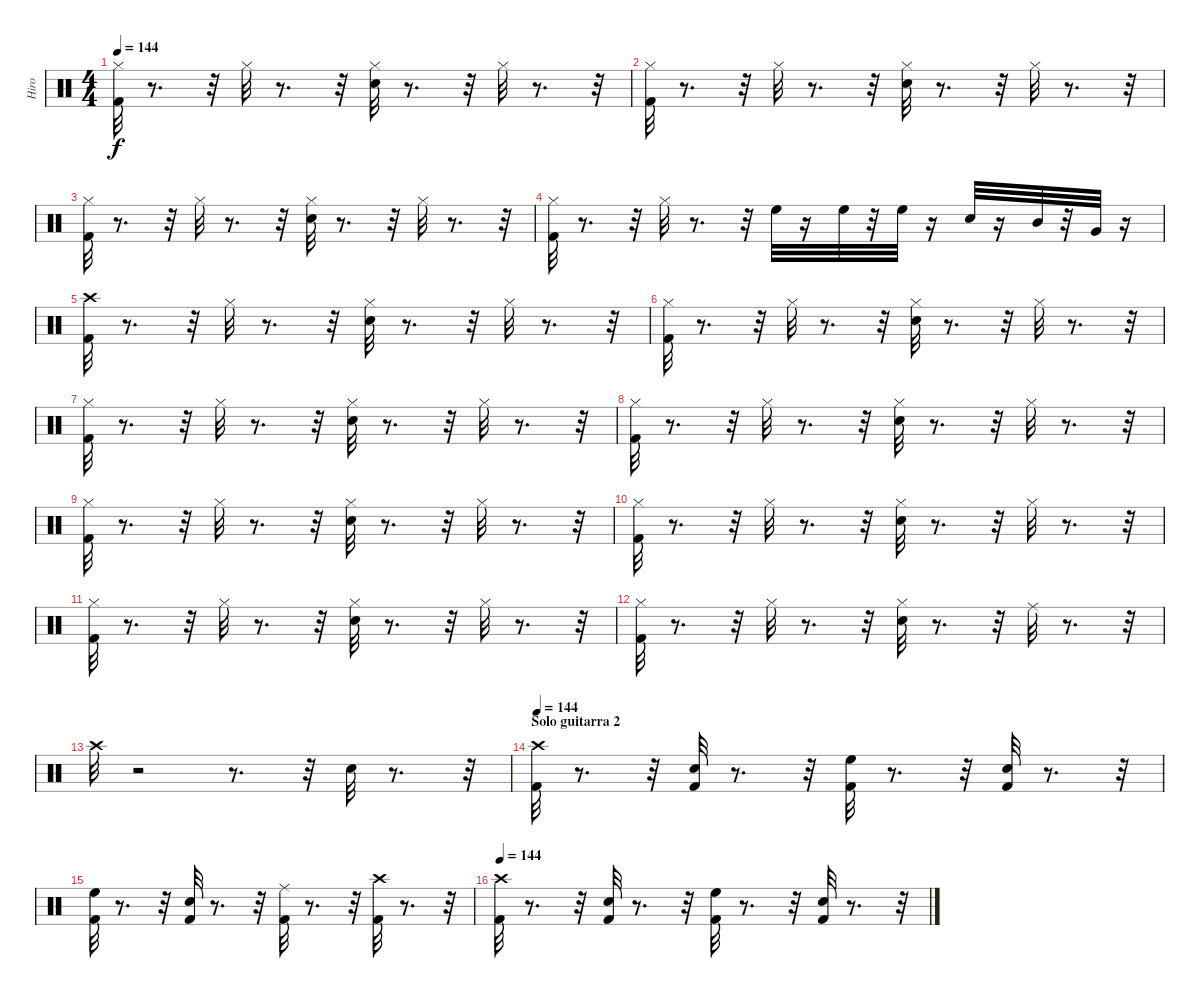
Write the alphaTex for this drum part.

\track ("Hiro" "Hiro") {instrument percussion}
\staff {score}
\articulation defaults
\ts (4 4)
\tempo 144
\clef neutral
\ks c
("Hi-Hat (closed)" "Kick (hit) 2").32{dy f} r.8{d} r.32 "Hi-Hat (closed)".32 r.8{d} r.32 ("Hi-Hat (closed)" "Snare (hit) 2").32 r.8{d} r.32 "Hi-Hat (closed)".32 r.8{d} r.32 |
("Hi-Hat (closed)" "Kick (hit) 2").32 r.8{d} r.32 "Hi-Hat (closed)".32 r.8{d} r.32 ("Hi-Hat (closed)" "Snare (hit) 2").32 r.8{d} r.32 "Hi-Hat (closed)".32 r.8{d} r.32 |
("Hi-Hat (closed)" "Kick (hit) 2").32 r.8{d} r.32 "Hi-Hat (closed)".32 r.8{d} r.32 ("Hi-Hat (closed)" "Snare (hit) 2").32 r.8{d} r.32 "Hi-Hat (closed)".32 r.8{d} r.32 |
("Kick (hit) 2" "Hi-Hat (closed)").32 r.8{d} r.32 "Hi-Hat (closed)".32 r.8{d} r.32 "High Floor Tom (hit)".32 r.16 "High Floor Tom (hit)".32 r.32 "High Floor Tom (hit)".32 r.16 "Snare (hit) 2".32 r.16 "Mid Tom (hit)".32 r.32 "Very Low Tom (hit)".32 r.16 |
("Crash high (hit)" "Kick (hit) 2").32 r.8{d} r.32 "Hi-Hat (closed)".32 r.8{d} r.32 ("Hi-Hat (closed)" "Snare (hit) 2").32 r.8{d} r.32 "Hi-Hat (closed)".32 r.8{d} r.32 |
("Kick (hit) 2" "Hi-Hat (closed)").32 r.8{d} r.32 "Hi-Hat (closed)".32 r.8{d} r.32 ("Snare (hit) 2" "Hi-Hat (closed)").32 r.8{d} r.32 "Hi-Hat (closed)".32 r.8{d} r.32 |
("Kick (hit) 2" "Hi-Hat (closed)").32 r.8{d} r.32 "Hi-Hat (closed)".32 r.8{d} r.32 ("Snare (hit) 2" "Hi-Hat (closed)").32 r.8{d} r.32 "Hi-Hat (closed)".32 r.8{d} r.32 |
("Kick (hit) 2" "Hi-Hat (closed)").32 r.8{d} r.32 "Hi-Hat (closed)".32 r.8{d} r.32 ("Snare (hit) 2" "Hi-Hat (closed)").32 r.8{d} r.32 "Hi-Hat (closed)".32 r.8{d} r.32 |
("Kick (hit) 2" "Hi-Hat (closed)").32 r.8{d} r.32 "Hi-Hat (closed)".32 r.8{d} r.32 ("Snare (hit) 2" "Hi-Hat (closed)").32 r.8{d} r.32 "Hi-Hat (closed)".32 r.8{d} r.32 |
("Hi-Hat (closed)" "Kick (hit) 2").32 r.8{d} r.32 "Hi-Hat (closed)".32 r.8{d} r.32 ("Snare (hit) 2" "Hi-Hat (closed)").32 r.8{d} r.32 "Hi-Hat (closed)".32 r.8{d} r.32 |
("Hi-Hat (closed)" "Kick (hit) 2").32 r.8{d} r.32 "Hi-Hat (closed)".32 r.8{d} r.32 ("Snare (hit) 2" "Hi-Hat (closed)").32 r.8{d} r.32 "Hi-Hat (closed)".32 r.8{d} r.32 |
("Kick (hit) 2" "Hi-Hat (closed)").32 r.8{d} r.32 "Hi-Hat (closed)".32 r.8{d} r.32 ("Snare (hit) 2" "Hi-Hat (closed)").32 r.8{d} r.32 "Ride (middle)".32 r.8{d} r.32 |
"Crash high (hit)".32 r.2 r.8{d} r.32 "Snare (hit) 2".32 r.8{d} r.32 |
\section ("" "Solo guitarra 2")
\tempo 144
("Crash high (hit)" "Kick (hit) 2").32 r.8{d} r.32 ("Snare (hit)" "Kick (hit) 2").32 r.8{d} r.32 ("High Floor Tom (hit)" "Kick (hit) 2").32 r.8{d} r.32 ("Snare (hit) 2" "Kick (hit) 2").32 r.8{d} r.32 |
("High Floor Tom (hit)" "Kick (hit) 2").32 r.8{d} r.32 ("Snare (hit) 2" "Kick (hit) 2").32 r.8{d} r.32 ("Kick (hit) 2" "Ride (middle)").32 r.8{d} r.32 ("Crash high (hit)" "Kick (hit) 2").32 r.8{d} r.32 |
\tempo 144
("Crash high (hit)" "Kick (hit) 2").32 r.8{d} r.32 ("Snare (hit)" "Kick (hit) 2").32 r.8{d} r.32 ("High Floor Tom (hit)" "Kick (hit) 2").32 r.8{d} r.32 ("Snare (hit) 2" "Kick (hit) 2").32 r.8{d} r.32
